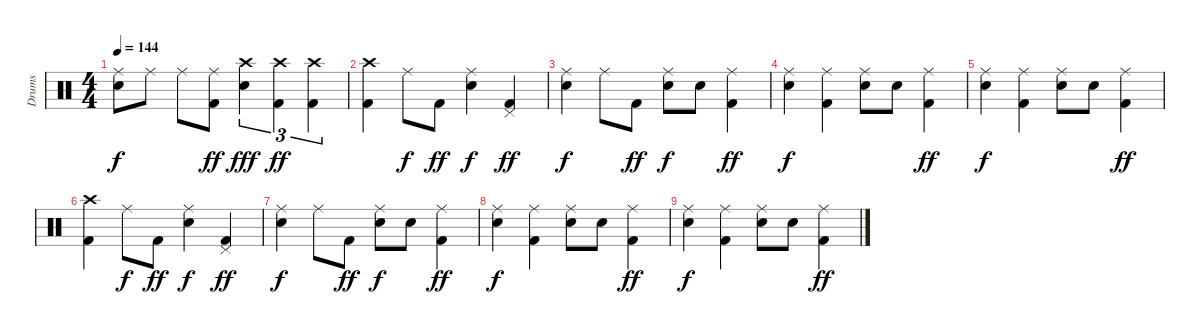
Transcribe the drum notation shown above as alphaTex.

\track ("Drums" "Drums") {instrument percussion}
\staff {score}
\articulation defaults
\ts (4 4)
\tempo 144
\clef neutral
\ks c
("Ride (middle)" "Snare (hit) 2").8{dy f} "Ride (middle)".8 "Ride (middle)".8 ("Ride (middle)" "Kick (hit) 2").8{dy ff} ("Crash high (hit)" "Snare (hit) 2").4{tu (3 2) dy fff} ("Crash high (hit)" "Kick (hit) 2").4{tu (3 2) dy ff} ("Crash high (hit)" "Kick (hit) 2").4{tu (3 2)} |
("Crash high (hit)" "Kick (hit) 2").4{volume 14} "Ride (middle)".8{dy f} "Kick (hit) 2".8{dy ff} ("Ride (middle)" "Snare (hit) 2").4{dy f} ("Pedal Hi-Hat (hit)" "Kick (hit) 2").4{dy ff} |
("Ride (middle)" "Snare (hit) 2").4{dy f volume 12} "Ride (middle)".8 "Kick (hit) 2".8{dy ff} ("Ride (middle)" "Snare (hit) 2").8{dy f} "Snare (hit) 2".8 ("Ride (middle)" "Kick (hit) 2").4{dy ff} |
("Ride (middle)" "Snare (hit) 2").4{dy f volume 10} ("Ride (middle)" "Kick (hit) 2").4 ("Ride (middle)" "Snare (hit) 2").8 "Snare (hit) 2".8 ("Ride (middle)" "Kick (hit) 2").4{dy ff} |
("Ride (middle)" "Snare (hit) 2").4{dy f volume 8} ("Ride (middle)" "Kick (hit) 2").4 ("Ride (middle)" "Snare (hit) 2").8 "Snare (hit) 2".8 ("Ride (middle)" "Kick (hit) 2").4{dy ff} |
("Crash high (hit)" "Kick (hit) 2").4{volume 7} "Ride (middle)".8{dy f} "Kick (hit) 2".8{dy ff} ("Ride (middle)" "Snare (hit) 2").4{dy f} ("Pedal Hi-Hat (hit)" "Kick (hit) 2").4{dy ff} |
("Ride (middle)" "Snare (hit) 2").4{dy f volume 6} "Ride (middle)".8 "Kick (hit) 2".8{dy ff} ("Ride (middle)" "Snare (hit) 2").8{dy f} "Snare (hit) 2".8 ("Ride (middle)" "Kick (hit) 2").4{dy ff} |
("Ride (middle)" "Snare (hit) 2").4{dy f volume 5} ("Ride (middle)" "Kick (hit) 2").4 ("Ride (middle)" "Snare (hit) 2").8 "Snare (hit) 2".8 ("Ride (middle)" "Kick (hit) 2").4{dy ff} |
("Ride (middle)" "Snare (hit) 2").4{dy f volume 4} ("Ride (middle)" "Kick (hit) 2").4 ("Ride (middle)" "Snare (hit) 2").8 "Snare (hit) 2".8 ("Ride (middle)" "Kick (hit) 2").4{dy ff}
